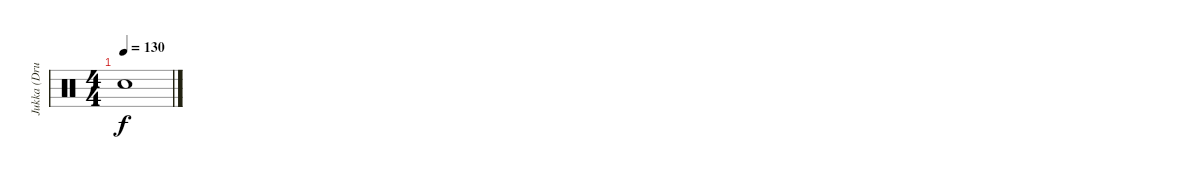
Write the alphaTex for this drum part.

\track ("Jukka (Drums)" "Jukka (Dru") {instrument percussion}
\staff {score}
\articulation defaults
\ts (4 4)
\tempo 130
\clef neutral
\ks c "Electric Snare (hit)".1{dy f}
